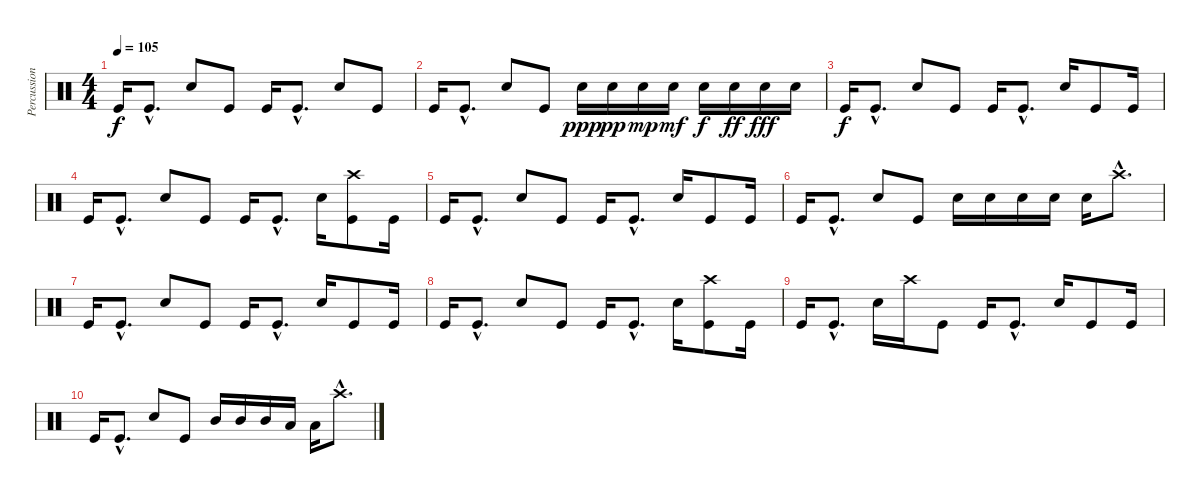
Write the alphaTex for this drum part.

\track ("Percussion" "Percussion") {instrument percussion}
\staff {score}
\articulation defaults
\ts (4 4)
\tempo 105
\clef neutral
\ks c "Kick (hit)".16{dy f} "Kick (hit)"{hac}.8{d} "Electric Snare (hit)".8 "Kick (hit)".8 "Kick (hit)".16 "Kick (hit)"{hac}.8{d} "Electric Snare (hit)".8 "Kick (hit)".8
|
"Kick (hit)".16 "Kick (hit)"{hac}.8{d} "Electric Snare (hit)".8 "Kick (hit)".8 "Electric Snare (hit)".16{dy ppp} "Electric Snare (hit)".16{dy pp} "Electric Snare (hit)".16{dy mp} "Electric Snare (hit)".16{dy mf} "Electric Snare (hit)".16{dy f} "Electric Snare (hit)".16{dy ff} "Electric Snare (hit)".16{dy fff} "Electric Snare (hit)".16 |
"Kick (hit)".16{dy f} "Kick (hit)"{hac}.8{d} "Electric Snare (hit)".8 "Kick (hit)".8 "Kick (hit)".16 "Kick (hit)"{hac}.8{d} "Electric Snare (hit)".16 "Kick (hit)".8 "Kick (hit)".16 |
"Kick (hit)".16 "Kick (hit)"{hac}.8{d} "Electric Snare (hit)".8 "Kick (hit)".8 "Kick (hit)".16 "Kick (hit)"{hac}.8{d} "Electric Snare (hit)".16 ("Crash high (hit)" "Kick (hit)").8 "Kick (hit)".16 |
"Kick (hit)".16 "Kick (hit)"{hac}.8{d} "Electric Snare (hit)".8 "Kick (hit)".8 "Kick (hit)".16 "Kick (hit)"{hac}.8{d} "Electric Snare (hit)".16 "Kick (hit)".8 "Kick (hit)".16 |
"Kick (hit)".16 "Kick (hit)"{hac}.8{d} "Electric Snare (hit)".8 "Kick (hit)".8 "Electric Snare (hit)".16 "Electric Snare (hit)".16 "Electric Snare (hit)".16 "Electric Snare (hit)".16 "Electric Snare (hit)".16 "Crash high (hit)"{hac}.8{d} |
"Kick (hit)".16 "Kick (hit)"{hac}.8{d} "Electric Snare (hit)".8 "Kick (hit)".8 "Kick (hit)".16 "Kick (hit)"{hac}.8{d} "Electric Snare (hit)".16 "Kick (hit)".8 "Kick (hit)".16 |
"Kick (hit)".16 "Kick (hit)"{hac}.8{d} "Electric Snare (hit)".8 "Kick (hit)".8 "Kick (hit)".16 "Kick (hit)"{hac}.8{d} "Electric Snare (hit)".16 ("Crash high (hit)" "Kick (hit)").8 "Kick (hit)".16 |
"Kick (hit)".16 "Kick (hit)"{hac}.8{d} "Electric Snare (hit)".16 "Crash high (hit)".16 "Kick (hit)".8 "Kick (hit)".16 "Kick (hit)"{hac}.8{d} "Electric Snare (hit)".16 "Kick (hit)".8 "Kick (hit)".16 |
"Kick (hit)".16 "Kick (hit)"{hac}.8{d} "Electric Snare (hit)".8 "Kick (hit)".8 "Mid Tom (hit)".16 "Mid Tom (hit)".16 "Mid Tom (hit)".16 "Low Tom (hit)".16 "Low Tom (hit)".16 "Crash high (hit)"{hac}.8{d}
